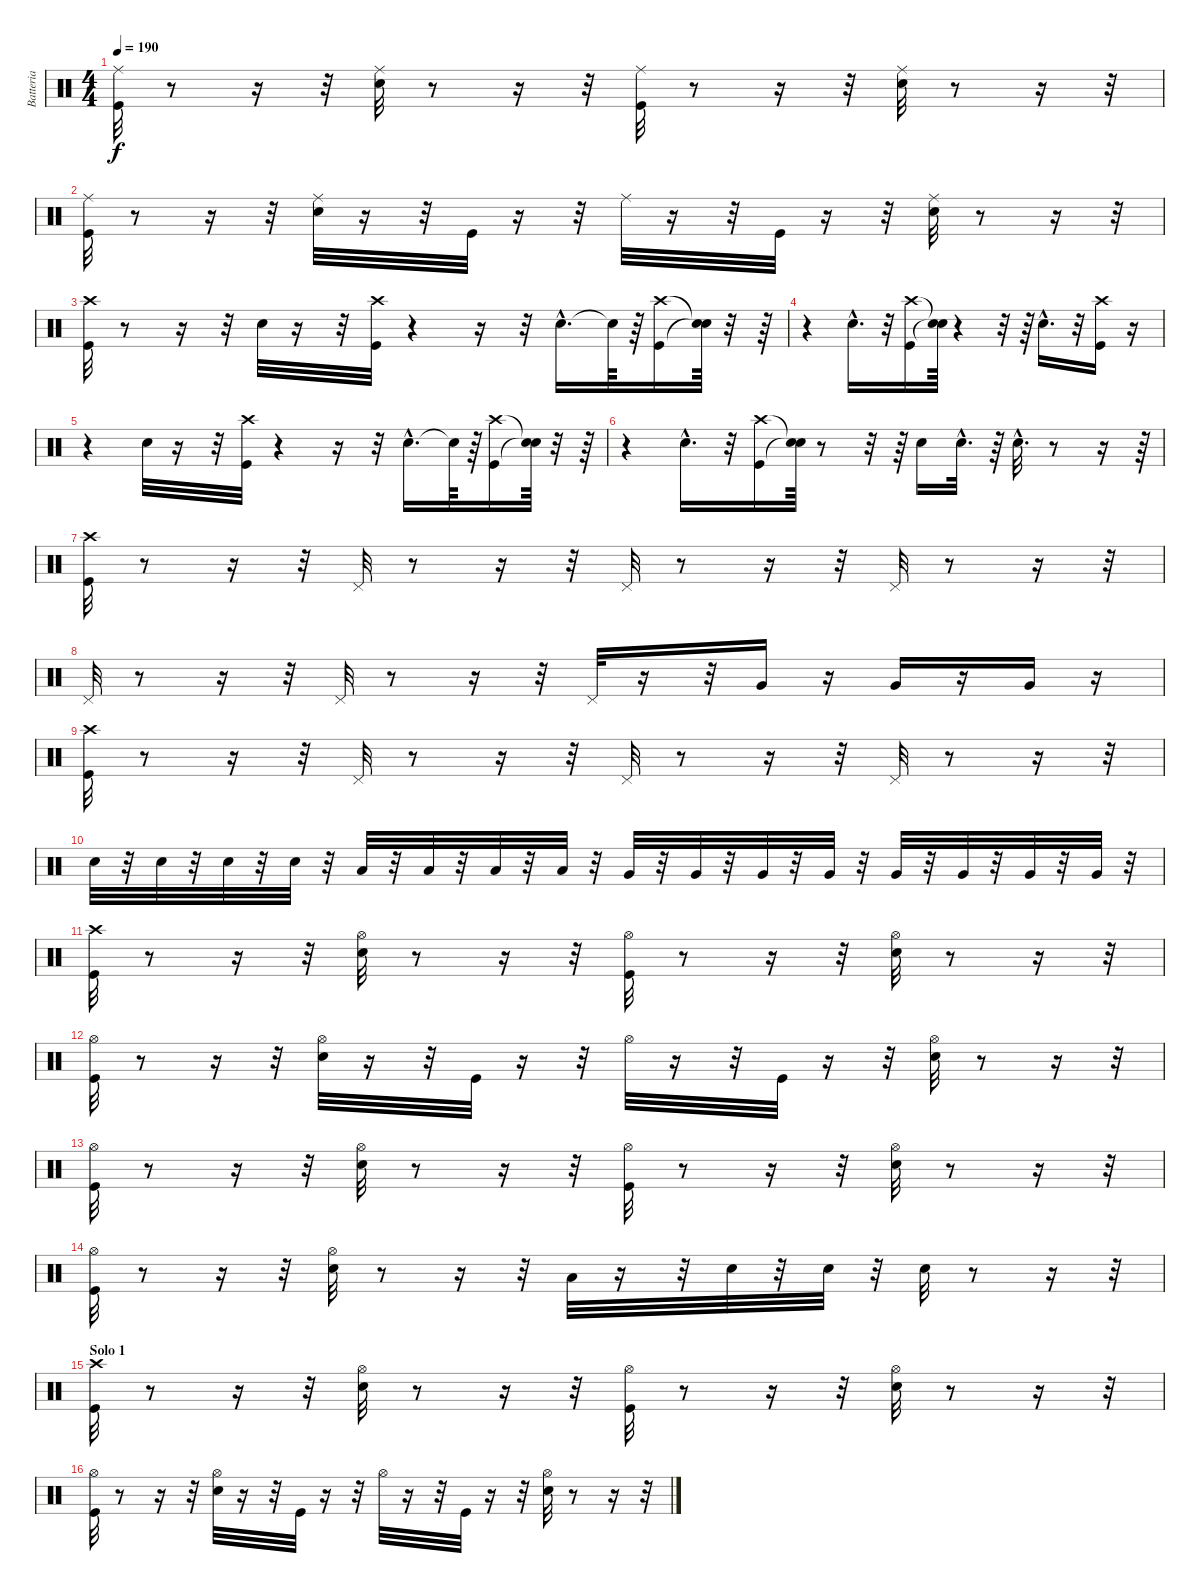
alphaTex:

\track ("Batteria" "Batteria") {instrument percussion}
\staff {score}
\articulation defaults
\ts (4 4)
\tempo 190
\clef neutral
\ks c
("Ride (middle)" "Kick (hit)").32{dy f} r.8 r.16 r.32 ("Snare (hit) 2" "Ride (middle)").32 r.8 r.16 r.32 ("Ride (middle)" "Kick (hit)").32 r.8 r.16 r.32 ("Ride (middle)" "Snare (hit) 2").32 r.8 r.16 r.32 |
("Ride (middle)" "Kick (hit)").32 r.8 r.16 r.32 ("Snare (hit) 2" "Ride (middle)").32 r.16 r.32 "Kick (hit)".32 r.16 r.32 "Ride (middle)".32 r.16 r.32 "Kick (hit)".32 r.16 r.32 ("Ride (middle)" "Snare (hit) 2").32 r.8 r.16 r.32 |
("Kick (hit)" "Crash high (hit)").32 r.8 r.16 r.32 "Snare (hit) 2".32 r.16 r.32 ("Kick (hit)" "Crash high (hit)").32 r.4 r.16 r.32 "Snare (hit) 2"{hac}.16{d} "Snare (hit)"{t}.64 r.64 ("Kick (hit)" "Crash high (hit)").16 ("Snare (hit)"{t} "Snare (hit)"{t}).64 r.32 r.64 |
r.4 "Snare (hit) 2"{hac}.16{d} r.32 ("Kick (hit)" "Crash high (hit)").16 ("Snare (hit)"{t} "Snare (hit)"{t}).64 r.4 r.32 r.64 "Snare (hit) 2"{hac}.16{d} r.32 ("Kick (hit)" "Crash high (hit)").16 r.16 |
r.4 "Snare (hit) 2".32 r.16 r.32 ("Kick (hit)" "Crash high (hit)").32 r.4 r.16 r.32 "Snare (hit) 2"{hac}.16{d} "Snare (hit)"{t}.64 r.64 ("Kick (hit)" "Crash high (hit)").16 ("Snare (hit)"{t} "Snare (hit)"{t}).64 r.32 r.64 |
r.4 "Snare (hit) 2"{hac}.16{d} r.32 ("Kick (hit)" "Crash high (hit)").16 ("Snare (hit)"{t} "Snare (hit)"{t}).64 r.8 r.32 r.64 "Snare (hit) 2".16 "Snare (hit) 2"{hac}.32{d} r.64 "Snare (hit) 2"{hac}.32{d} r.8 r.16 r.64 |
("Crash high (hit)" "Kick (hit)").32 r.8 r.16 r.32 "Pedal Hi-Hat (hit)".32 r.8 r.16 r.32 "Pedal Hi-Hat (hit)".32 r.8 r.16 r.32 "Pedal Hi-Hat (hit)".32 r.8 r.16 r.32 |
"Pedal Hi-Hat (hit)".32 r.8 r.16 r.32 "Pedal Hi-Hat (hit)".32 r.8 r.16 r.32 "Pedal Hi-Hat (hit)".32 r.16 r.32 "Very Low Tom (hit)".16 r.16 "Very Low Tom (hit)".16 r.16 "Very Low Tom (hit)".16 r.16 |
("Crash high (hit)" "Kick (hit)").32 r.8 r.16 r.32 "Pedal Hi-Hat (hit)".32 r.8 r.16 r.32 "Pedal Hi-Hat (hit)".32 r.8 r.16 r.32 "Pedal Hi-Hat (hit)".32 r.8 r.16 r.32 |
"Snare (hit) 2".32 r.32 "Snare (hit) 2".32 r.32 "Snare (hit) 2".32 r.32 "Snare (hit) 2".32 r.32 "Low Tom (hit)".32 r.32 "Low Tom (hit)".32 r.32 "Low Tom (hit)".32 r.32 "Low Tom (hit)".32 r.32 "Very Low Tom (hit)".32 r.32 "Very Low Tom (hit)".32 r.32 "Very Low Tom (hit)".32 r.32 "Very Low Tom (hit)".32 r.32 "Very Low Tom (hit)".32 r.32 "Very Low Tom (hit)".32 r.32 "Very Low Tom (hit)".32 r.32 "Very Low Tom (hit)".32 r.32 |
("Kick (hit)" "Crash high (hit)").32 r.8 r.16 r.32 ("Hi-Hat (open)" "Snare (hit) 2").32 r.8 r.16 r.32 ("Hi-Hat (open)" "Kick (hit)").32 r.8 r.16 r.32 ("Snare (hit) 2" "Hi-Hat (open)").32 r.8 r.16 r.32 |
("Kick (hit)" "Hi-Hat (open)").32 r.8 r.16 r.32 ("Hi-Hat (open)" "Snare (hit) 2").32 r.16 r.32 "Kick (hit)".32 r.16 r.32 "Hi-Hat (open)".32 r.16 r.32 "Kick (hit)".32 r.16 r.32 ("Hi-Hat (open)" "Snare (hit) 2").32 r.8 r.16 r.32 |
("Hi-Hat (open)" "Kick (hit)").32 r.8 r.16 r.32 ("Snare (hit) 2" "Hi-Hat (open)").32 r.8 r.16 r.32 ("Hi-Hat (open)" "Kick (hit)").32 r.8 r.16 r.32 ("Hi-Hat (open)" "Snare (hit) 2").32 r.8 r.16 r.32 |
("Kick (hit)" "Hi-Hat (open)").32 r.8 r.16 r.32 ("Snare (hit) 2" "Hi-Hat (open)").32 r.8 r.16 r.32 "Low Tom (hit)".32 r.16 r.32 "Snare (hit) 2".32 r.32 "Snare (hit) 2".32 r.32 "Snare (hit) 2".32 r.8 r.16 r.32 |
\section ("" "Solo 1")
("Kick (hit)" "Crash high (hit)").32 r.8 r.16 r.32 ("Hi-Hat (open)" "Snare (hit) 2").32 r.8 r.16 r.32 ("Hi-Hat (open)" "Kick (hit)").32 r.8 r.16 r.32 ("Snare (hit) 2" "Hi-Hat (open)").32 r.8 r.16 r.32 |
("Kick (hit)" "Hi-Hat (open)").32 r.8 r.16 r.32 ("Hi-Hat (open)" "Snare (hit) 2").32 r.16 r.32 "Kick (hit)".32 r.16 r.32 "Hi-Hat (open)".32 r.16 r.32 "Kick (hit)".32 r.16 r.32 ("Hi-Hat (open)" "Snare (hit) 2").32 r.8 r.16 r.32
